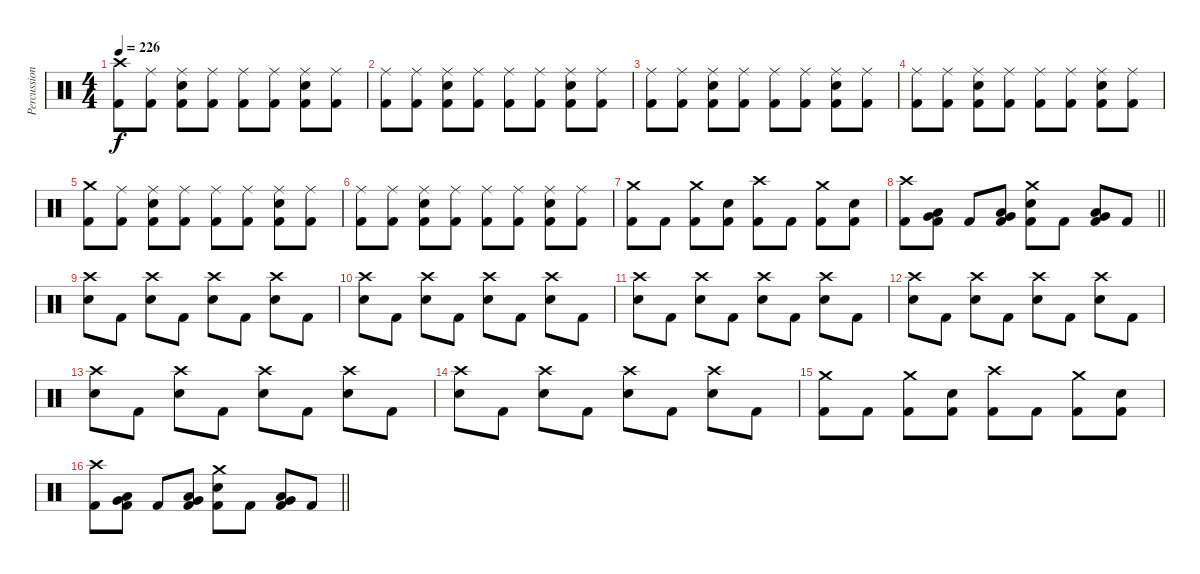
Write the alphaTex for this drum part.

\track ("Percussion" "Percussion") {instrument percussion}
\staff {score}
\articulation defaults
\ts (4 4)
\tempo 226
\clef neutral
\ks c
("Crash high (hit)" "Kick (hit) 2").8{dy f} ("Ride (middle)" "Kick (hit) 2").8 ("Ride (middle)" "Snare (hit) 2" "Kick (hit) 2").8 ("Ride (middle)" "Kick (hit) 2").8 ("Ride (middle)" "Kick (hit) 2").8 ("Ride (middle)" "Kick (hit) 2").8 ("Ride (middle)" "Snare (hit) 2" "Kick (hit) 2").8 ("Ride (middle)" "Kick (hit) 2").8 |
("Ride (middle)" "Kick (hit) 2").8 ("Ride (middle)" "Kick (hit) 2").8 ("Ride (middle)" "Snare (hit) 2" "Kick (hit) 2").8 ("Ride (middle)" "Kick (hit) 2").8 ("Ride (middle)" "Kick (hit) 2").8 ("Ride (middle)" "Kick (hit) 2").8 ("Ride (middle)" "Snare (hit) 2" "Kick (hit) 2").8 ("Ride (middle)" "Kick (hit) 2").8 |
("Ride (middle)" "Kick (hit) 2").8 ("Ride (middle)" "Kick (hit) 2").8 ("Ride (middle)" "Snare (hit) 2" "Kick (hit) 2").8 ("Ride (middle)" "Kick (hit) 2").8 ("Ride (middle)" "Kick (hit) 2").8 ("Ride (middle)" "Kick (hit) 2").8 ("Ride (middle)" "Snare (hit) 2" "Kick (hit) 2").8 ("Ride (middle)" "Kick (hit) 2").8 |
("Ride (middle)" "Kick (hit) 2").8 ("Ride (middle)" "Kick (hit) 2").8 ("Ride (middle)" "Snare (hit) 2" "Kick (hit) 2").8 ("Ride (middle)" "Kick (hit) 2").8 ("Ride (middle)" "Kick (hit) 2").8 ("Ride (middle)" "Kick (hit) 2").8 ("Ride (middle)" "Snare (hit) 2" "Kick (hit) 2").8 ("Ride (middle)" "Kick (hit) 2").8 |
("Crash medium (hit)" "Kick (hit) 2").8 ("Ride (middle)" "Kick (hit) 2").8 ("Ride (middle)" "Snare (hit) 2" "Kick (hit) 2").8 ("Ride (middle)" "Kick (hit) 2").8 ("Ride (middle)" "Kick (hit) 2").8 ("Ride (middle)" "Kick (hit) 2").8 ("Ride (middle)" "Snare (hit) 2" "Kick (hit) 2").8 ("Ride (middle)" "Kick (hit) 2").8 |
("Ride (middle)" "Kick (hit) 2").8 ("Ride (middle)" "Kick (hit) 2").8 ("Ride (middle)" "Snare (hit) 2" "Kick (hit) 2").8 ("Ride (middle)" "Kick (hit) 2").8 ("Ride (middle)" "Kick (hit) 2").8 ("Ride (middle)" "Kick (hit) 2").8 ("Ride (middle)" "Snare (hit) 2" "Kick (hit) 2").8 ("Ride (middle)" "Kick (hit) 2").8 |
("Crash medium (hit)" "Kick (hit) 2").8 "Kick (hit) 2".8 ("Crash medium (hit)" "Kick (hit) 2").8 ("Snare (hit) 2" "Kick (hit) 2").8 ("Crash high (hit)" "Kick (hit) 2").8 "Kick (hit) 2".8 ("Crash medium (hit)" "Kick (hit) 2").8 ("Snare (hit) 2" "Kick (hit) 2").8 |
\barLineRight lightlight
("Crash high (hit)" "Kick (hit) 2").8 ("Very Low Tom (hit)" "Low Floor Tom (hit)" "Kick (hit) 2").8 "Kick (hit) 2".8 ("Very Low Tom (hit)" "Low Tom (hit)" "Kick (hit) 2").8 ("Crash medium (hit)" "Snare (hit) 2" "Kick (hit) 2").8 "Kick (hit) 2".8 ("Low Floor Tom (hit)" "Very Low Tom (hit)" "Kick (hit) 2").8 "Kick (hit) 2".8 |
\section ("" "")
("Crash high (hit)" "Snare (hit) 2").8 "Kick (hit) 2".8 ("Crash high (hit)" "Snare (hit) 2").8 "Kick (hit) 2".8 ("Crash high (hit)" "Snare (hit) 2").8 "Kick (hit) 2".8 ("Crash high (hit)" "Snare (hit) 2").8 "Kick (hit) 2".8 |
("Crash high (hit)" "Snare (hit) 2").8 "Kick (hit) 2".8 ("Crash high (hit)" "Snare (hit) 2").8 "Kick (hit) 2".8 ("Crash high (hit)" "Snare (hit) 2").8 "Kick (hit) 2".8 ("Crash high (hit)" "Snare (hit) 2").8 "Kick (hit) 2".8 |
("Crash high (hit)" "Snare (hit) 2").8 "Kick (hit) 2".8 ("Crash high (hit)" "Snare (hit) 2").8 "Kick (hit) 2".8 ("Crash high (hit)" "Snare (hit) 2").8 "Kick (hit) 2".8 ("Crash high (hit)" "Snare (hit) 2").8 "Kick (hit) 2".8 |
("Crash high (hit)" "Snare (hit) 2").8 "Kick (hit) 2".8 ("Crash high (hit)" "Snare (hit) 2").8 "Kick (hit) 2".8 ("Crash high (hit)" "Snare (hit) 2").8 "Kick (hit) 2".8 ("Crash high (hit)" "Snare (hit) 2").8 "Kick (hit) 2".8 |
("Crash high (hit)" "Snare (hit) 2").8 "Kick (hit) 2".8 ("Crash high (hit)" "Snare (hit) 2").8 "Kick (hit) 2".8 ("Crash high (hit)" "Snare (hit) 2").8 "Kick (hit) 2".8 ("Crash high (hit)" "Snare (hit) 2").8 "Kick (hit) 2".8 |
("Crash high (hit)" "Snare (hit) 2").8 "Kick (hit) 2".8 ("Crash high (hit)" "Snare (hit) 2").8 "Kick (hit) 2".8 ("Crash high (hit)" "Snare (hit) 2").8 "Kick (hit) 2".8 ("Crash high (hit)" "Snare (hit) 2").8 "Kick (hit) 2".8 |
("Crash medium (hit)" "Kick (hit) 2").8 "Kick (hit) 2".8 ("Crash medium (hit)" "Kick (hit) 2").8 ("Snare (hit) 2" "Kick (hit) 2").8 ("Crash high (hit)" "Kick (hit) 2").8 "Kick (hit) 2".8 ("Crash medium (hit)" "Kick (hit) 2").8 ("Snare (hit) 2" "Kick (hit) 2").8 |
\barLineRight lightlight
("Crash high (hit)" "Kick (hit) 2").8 ("Very Low Tom (hit)" "Low Floor Tom (hit)" "Kick (hit) 2").8 "Kick (hit) 2".8 ("Very Low Tom (hit)" "Low Tom (hit)" "Kick (hit) 2").8 ("Crash medium (hit)" "Snare (hit) 2" "Kick (hit) 2").8 "Kick (hit) 2".8 ("Low Floor Tom (hit)" "Very Low Tom (hit)" "Kick (hit) 2").8 "Kick (hit) 2".8
